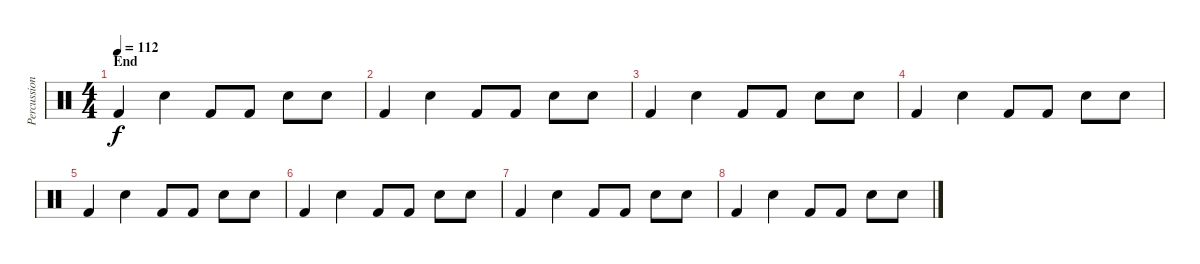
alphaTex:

\track ("Percussions" "Percussion") {instrument percussion}
\staff {score}
\articulation defaults
\ts (4 4)
\section ("" "End")
\tempo 112
\clef neutral
\ks c "Kick (hit) 2".4{dy f} "Electric Snare (hit)".4 "Kick (hit) 2".8 "Kick (hit) 2".8 "Electric Snare (hit)".8 "Electric Snare (hit)".8
|
"Kick (hit) 2".4 "Electric Snare (hit)".4 "Kick (hit) 2".8 "Kick (hit) 2".8 "Electric Snare (hit)".8 "Electric Snare (hit)".8 |
"Kick (hit) 2".4 "Electric Snare (hit)".4 "Kick (hit) 2".8 "Kick (hit) 2".8 "Electric Snare (hit)".8 "Electric Snare (hit)".8 |
"Kick (hit) 2".4 "Electric Snare (hit)".4 "Kick (hit) 2".8 "Kick (hit) 2".8 "Electric Snare (hit)".8 "Electric Snare (hit)".8 |
"Kick (hit) 2".4 "Electric Snare (hit)".4 "Kick (hit) 2".8 "Kick (hit) 2".8 "Electric Snare (hit)".8 "Electric Snare (hit)".8 |
"Kick (hit) 2".4 "Electric Snare (hit)".4 "Kick (hit) 2".8 "Kick (hit) 2".8 "Electric Snare (hit)".8 "Electric Snare (hit)".8 |
"Kick (hit) 2".4 "Electric Snare (hit)".4 "Kick (hit) 2".8 "Kick (hit) 2".8 "Electric Snare (hit)".8 "Electric Snare (hit)".8 |
"Kick (hit) 2".4 "Electric Snare (hit)".4 "Kick (hit) 2".8 "Kick (hit) 2".8 "Electric Snare (hit)".8 "Electric Snare (hit)".8
